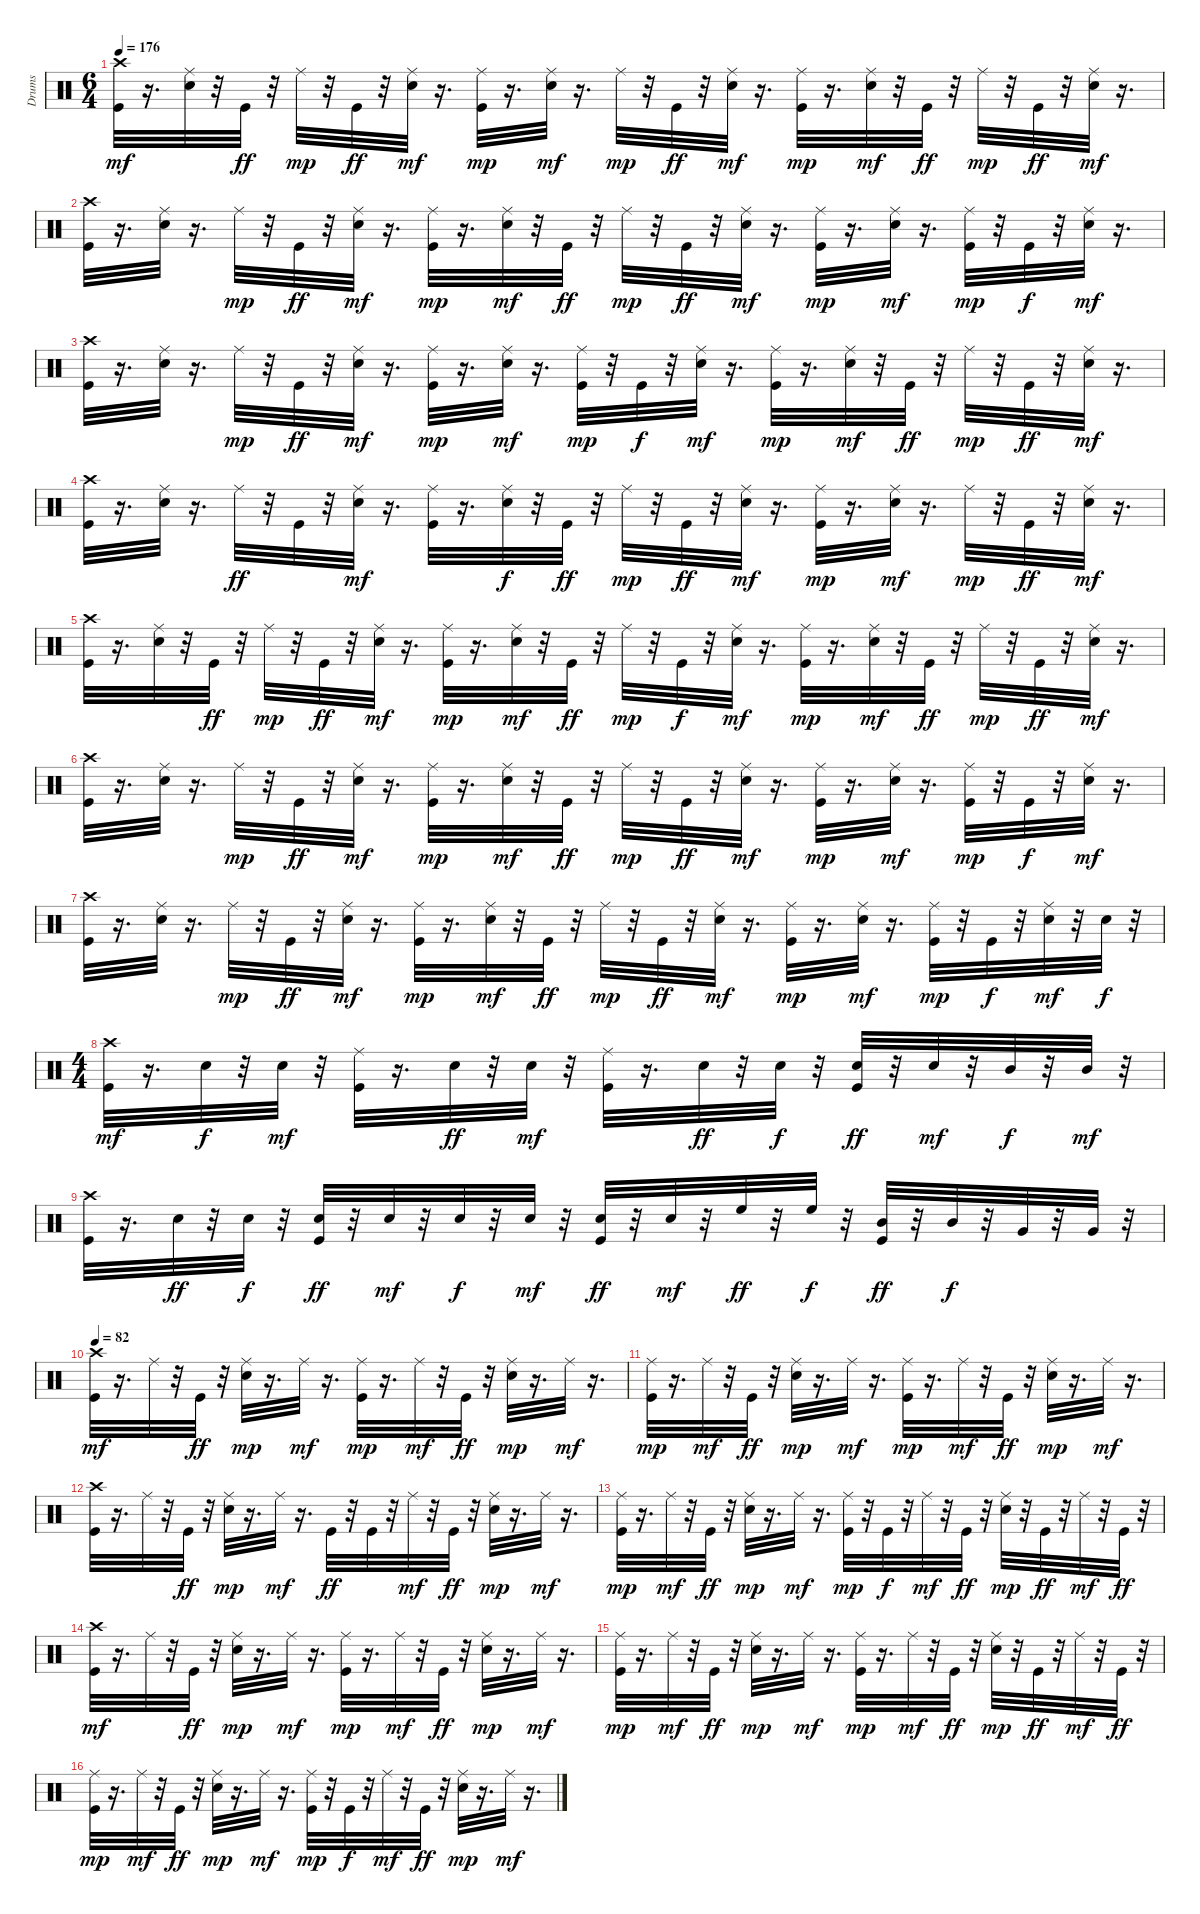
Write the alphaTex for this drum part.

\track ("Drums" "Drums") {instrument percussion}
\staff {score}
\articulation defaults
\ts (6 4)
\tempo 176
\clef neutral
\ks c
("Kick (hit)" "Crash high (hit)").32{dy mf} r.16{d} ("Snare (hit) 2" "Ride (middle)").32 r.32 "Kick (hit)".32{dy ff} r.32 "Ride (middle)".32{dy mp} r.32 "Kick (hit)".32{dy ff} r.32 ("Snare (hit) 2" "Ride (middle)").32{dy mf} r.16{d} ("Kick (hit)" "Ride (middle)").32{dy mp} r.16{d} ("Snare (hit) 2" "Ride (middle)").32{dy mf} r.16{d} "Ride (middle)".32{dy mp} r.32 "Kick (hit)".32{dy ff} r.32 ("Snare (hit) 2" "Ride (middle)").32{dy mf} r.16{d} ("Kick (hit)" "Ride (middle)").32{dy mp} r.16{d} ("Snare (hit) 2" "Ride (middle)").32{dy mf} r.32 "Kick (hit)".32{dy ff} r.32 "Ride (middle)".32{dy mp} r.32 "Kick (hit)".32{dy ff} r.32 ("Snare (hit) 2" "Ride (middle)").32{dy mf} r.16{d} |
("Kick (hit)" "Crash high (hit)").32 r.16{d} ("Snare (hit) 2" "Ride (middle)").32 r.16{d} "Ride (middle)".32{dy mp} r.32 "Kick (hit)".32{dy ff} r.32 ("Snare (hit) 2" "Ride (middle)").32{dy mf} r.16{d} ("Kick (hit)" "Ride (middle)").32{dy mp} r.16{d} ("Snare (hit) 2" "Ride (middle)").32{dy mf} r.32 "Kick (hit)".32{dy ff} r.32 "Ride (middle)".32{dy mp} r.32 "Kick (hit)".32{dy ff} r.32 ("Snare (hit) 2" "Ride (middle)").32{dy mf} r.16{d} ("Kick (hit)" "Ride (middle)").32{dy mp} r.16{d} ("Snare (hit) 2" "Ride (middle)").32{dy mf} r.16{d} ("Kick (hit)" "Ride (middle)").32{dy mp} r.32 "Kick (hit)".32{dy f} r.32 ("Snare (hit) 2" "Ride (middle)").32{dy mf} r.16{d} |
("Kick (hit)" "Crash high (hit)").32 r.16{d} ("Snare (hit) 2" "Ride (middle)").32 r.16{d} "Ride (middle)".32{dy mp} r.32 "Kick (hit)".32{dy ff} r.32 ("Snare (hit) 2" "Ride (middle)").32{dy mf} r.16{d} ("Kick (hit)" "Ride (middle)").32{dy mp} r.16{d} ("Snare (hit) 2" "Ride (middle)").32{dy mf} r.16{d} ("Kick (hit)" "Ride (middle)").32{dy mp} r.32 "Kick (hit)".32{dy f} r.32 ("Snare (hit) 2" "Ride (middle)").32{dy mf} r.16{d} ("Kick (hit)" "Ride (middle)").32{dy mp} r.16{d} ("Snare (hit) 2" "Ride (middle)").32{dy mf} r.32 "Kick (hit)".32{dy ff} r.32 "Ride (middle)".32{dy mp} r.32 "Kick (hit)".32{dy ff} r.32 ("Snare (hit) 2" "Ride (middle)").32{dy mf} r.16{d} |
("Kick (hit)" "Crash high (hit)").32 r.16{d} ("Snare (hit) 2" "Ride (middle)").32 r.16{d} "Ride (middle)".32{dy ff} r.32 "Kick (hit)".32 r.32 ("Snare (hit) 2" "Ride (middle)").32{dy mf} r.16{d} ("Kick (hit)" "Ride (middle)").32 r.16{d} ("Snare (hit) 2" "Ride (middle)").32{dy f} r.32 "Kick (hit)".32{dy ff} r.32 "Ride (middle)".32{dy mp} r.32 "Kick (hit)".32{dy ff} r.32 ("Snare (hit) 2" "Ride (middle)").32{dy mf} r.16{d} ("Kick (hit)" "Ride (middle)").32{dy mp} r.16{d} ("Snare (hit) 2" "Ride (middle)").32{dy mf} r.16{d} "Ride (middle)".32{dy mp} r.32 "Kick (hit)".32{dy ff} r.32 ("Snare (hit) 2" "Ride (middle)").32{dy mf} r.16{d} |
("Kick (hit)" "Crash high (hit)").32 r.16{d} ("Snare (hit) 2" "Ride (middle)").32 r.32 "Kick (hit)".32{dy ff} r.32 "Ride (middle)".32{dy mp} r.32 "Kick (hit)".32{dy ff} r.32 ("Snare (hit) 2" "Ride (middle)").32{dy mf} r.16{d} ("Kick (hit)" "Ride (middle)").32{dy mp} r.16{d} ("Snare (hit) 2" "Ride (middle)").32{dy mf} r.32 "Kick (hit)".32{dy ff} r.32 "Ride (middle)".32{dy mp} r.32 "Kick (hit)".32{dy f} r.32 ("Snare (hit) 2" "Ride (middle)").32{dy mf} r.16{d} ("Kick (hit)" "Ride (middle)").32{dy mp} r.16{d} ("Snare (hit) 2" "Ride (middle)").32{dy mf} r.32 "Kick (hit)".32{dy ff} r.32 "Ride (middle)".32{dy mp} r.32 "Kick (hit)".32{dy ff} r.32 ("Snare (hit) 2" "Ride (middle)").32{dy mf} r.16{d} |
("Kick (hit)" "Crash high (hit)").32 r.16{d} ("Snare (hit) 2" "Ride (middle)").32 r.16{d} "Ride (middle)".32{dy mp} r.32 "Kick (hit)".32{dy ff} r.32 ("Snare (hit) 2" "Ride (middle)").32{dy mf} r.16{d} ("Kick (hit)" "Ride (middle)").32{dy mp} r.16{d} ("Snare (hit) 2" "Ride (middle)").32{dy mf} r.32 "Kick (hit)".32{dy ff} r.32 "Ride (middle)".32{dy mp} r.32 "Kick (hit)".32{dy ff} r.32 ("Snare (hit) 2" "Ride (middle)").32{dy mf} r.16{d} ("Kick (hit)" "Ride (middle)").32{dy mp} r.16{d} ("Snare (hit) 2" "Ride (middle)").32{dy mf} r.16{d} ("Kick (hit)" "Ride (middle)").32{dy mp} r.32 "Kick (hit)".32{dy f} r.32 ("Snare (hit) 2" "Ride (middle)").32{dy mf} r.16{d} |
("Kick (hit)" "Crash high (hit)").32 r.16{d} ("Snare (hit) 2" "Ride (middle)").32 r.16{d} "Ride (middle)".32{dy mp} r.32 "Kick (hit)".32{dy ff} r.32 ("Snare (hit) 2" "Ride (middle)").32{dy mf} r.16{d} ("Kick (hit)" "Ride (middle)").32{dy mp} r.16{d} ("Snare (hit) 2" "Ride (middle)").32{dy mf} r.32 "Kick (hit)".32{dy ff} r.32 "Ride (middle)".32{dy mp} r.32 "Kick (hit)".32{dy ff} r.32 ("Snare (hit) 2" "Ride (middle)").32{dy mf} r.16{d} ("Kick (hit)" "Ride (middle)").32{dy mp} r.16{d} ("Snare (hit) 2" "Ride (middle)").32{dy mf} r.16{d} ("Kick (hit)" "Ride (middle)").32{dy mp} r.32 "Kick (hit)".32{dy f} r.32 ("Snare (hit) 2" "Ride (middle)").32{dy mf} r.32 "Snare (hit) 2".32{dy f} r.32 |
\ts (4 4)
("Kick (hit)" "Crash high (hit)").32{dy mf} r.16{d} "Snare (hit) 2".32{dy f} r.32 "Snare (hit) 2".32{dy mf} r.32 ("Kick (hit)" "Ride (middle)").32 r.16{d} "Snare (hit) 2".32{dy ff} r.32 "Snare (hit) 2".32{dy mf} r.32 ("Kick (hit)" "Ride (middle)").32 r.16{d} "Snare (hit) 2".32{dy ff} r.32 "Snare (hit) 2".32{dy f} r.32 ("Kick (hit)" "Snare (hit) 2").32{dy ff} r.32 "Snare (hit) 2".32{dy mf} r.32 "Mid Tom (hit)".32{dy f} r.32 "Mid Tom (hit)".32{dy mf} r.32 |
("Kick (hit)" "Crash high (hit)").32 r.16{d} "Snare (hit) 2".32{dy ff} r.32 "Snare (hit) 2".32{dy f} r.32 ("Kick (hit)" "Snare (hit) 2").32{dy ff} r.32 "Snare (hit) 2".32{dy mf} r.32 "Snare (hit) 2".32{dy f} r.32 "Snare (hit) 2".32{dy mf} r.32 ("Kick (hit)" "Snare (hit) 2").32{dy ff} r.32 "Snare (hit) 2".32{dy mf} r.32 "High Floor Tom (hit)".32{dy ff} r.32 "High Floor Tom (hit)".32{dy f} r.32 ("Kick (hit)" "Mid Tom (hit)").32{dy ff} r.32 "Mid Tom (hit)".32{dy f} r.32 "Very Low Tom (hit)".32 r.32 "Very Low Tom (hit)".32 r.32 |
\tempo 82
("Kick (hit)" "Crash high (hit)").32{dy mf} r.16{d} "Ride (middle)".32 r.32 "Kick (hit)".32{dy ff} r.32 ("Snare (hit) 2" "Ride (middle)").32{dy mp} r.16{d} "Ride (middle)".32{dy mf} r.16{d} ("Kick (hit)" "Ride (middle)").32{dy mp} r.16{d} "Ride (middle)".32{dy mf} r.32 "Kick (hit)".32{dy ff} r.32 ("Snare (hit) 2" "Ride (middle)").32{dy mp} r.16{d} "Ride (middle)".32{dy mf} r.16{d} |
("Kick (hit)" "Ride (middle)").32{dy mp} r.16{d} "Ride (middle)".32{dy mf} r.32 "Kick (hit)".32{dy ff} r.32 ("Snare (hit) 2" "Ride (middle)").32{dy mp} r.16{d} "Ride (middle)".32{dy mf} r.16{d} ("Kick (hit)" "Ride (middle)").32{dy mp} r.16{d} "Ride (middle)".32{dy mf} r.32 "Kick (hit)".32{dy ff} r.32 ("Snare (hit) 2" "Ride (middle)").32{dy mp} r.16{d} "Ride (middle)".32{dy mf} r.16{d} |
("Kick (hit)" "Crash high (hit)").32 r.16{d} "Ride (middle)".32 r.32 "Kick (hit)".32{dy ff} r.32 ("Snare (hit) 2" "Ride (middle)").32{dy mp} r.16{d} "Ride (middle)".32{dy mf} r.16{d} "Kick (hit)".32{dy ff} r.32 "Kick (hit)".32 r.32 "Ride (middle)".32{dy mf} r.32 "Kick (hit)".32{dy ff} r.32 ("Snare (hit) 2" "Ride (middle)").32{dy mp} r.16{d} "Ride (middle)".32{dy mf} r.16{d} |
("Kick (hit)" "Ride (middle)").32{dy mp} r.16{d} "Ride (middle)".32{dy mf} r.32 "Kick (hit)".32{dy ff} r.32 ("Snare (hit) 2" "Ride (middle)").32{dy mp} r.16{d} "Ride (middle)".32{dy mf} r.16{d} ("Kick (hit)" "Ride (middle)").32{dy mp} r.32 "Kick (hit)".32{dy f} r.32 "Ride (middle)".32{dy mf} r.32 "Kick (hit)".32{dy ff} r.32 ("Snare (hit) 2" "Ride (middle)").32{dy mp} r.32 "Kick (hit)".32{dy ff} r.32 "Ride (middle)".32{dy mf} r.32 "Kick (hit)".32{dy ff} r.32 |
("Kick (hit)" "Crash high (hit)").32{dy mf} r.16{d} "Ride (middle)".32 r.32 "Kick (hit)".32{dy ff} r.32 ("Snare (hit) 2" "Ride (middle)").32{dy mp} r.16{d} "Ride (middle)".32{dy mf} r.16{d} ("Kick (hit)" "Ride (middle)").32{dy mp} r.16{d} "Ride (middle)".32{dy mf} r.32 "Kick (hit)".32{dy ff} r.32 ("Snare (hit) 2" "Ride (middle)").32{dy mp} r.16{d} "Ride (middle)".32{dy mf} r.16{d} |
("Kick (hit)" "Ride (middle)").32{dy mp} r.16{d} "Ride (middle)".32{dy mf} r.32 "Kick (hit)".32{dy ff} r.32 ("Snare (hit) 2" "Ride (middle)").32{dy mp} r.16{d} "Ride (middle)".32{dy mf} r.16{d} ("Kick (hit)" "Ride (middle)").32{dy mp} r.16{d} "Ride (middle)".32{dy mf} r.32 "Kick (hit)".32{dy ff} r.32 ("Snare (hit) 2" "Ride (middle)").32{dy mp} r.32 "Kick (hit)".32{dy ff} r.32 "Ride (middle)".32{dy mf} r.32 "Kick (hit)".32{dy ff} r.32 |
("Kick (hit)" "Ride (middle)").32{dy mp} r.16{d} "Ride (middle)".32{dy mf} r.32 "Kick (hit)".32{dy ff} r.32 ("Snare (hit) 2" "Ride (middle)").32{dy mp} r.16{d} "Ride (middle)".32{dy mf} r.16{d} ("Kick (hit)" "Ride (middle)").32{dy mp} r.32 "Kick (hit)".32{dy f} r.32 "Ride (middle)".32{dy mf} r.32 "Kick (hit)".32{dy ff} r.32 ("Snare (hit) 2" "Ride (middle)").32{dy mp} r.16{d} "Ride (middle)".32{dy mf} r.16{d}
